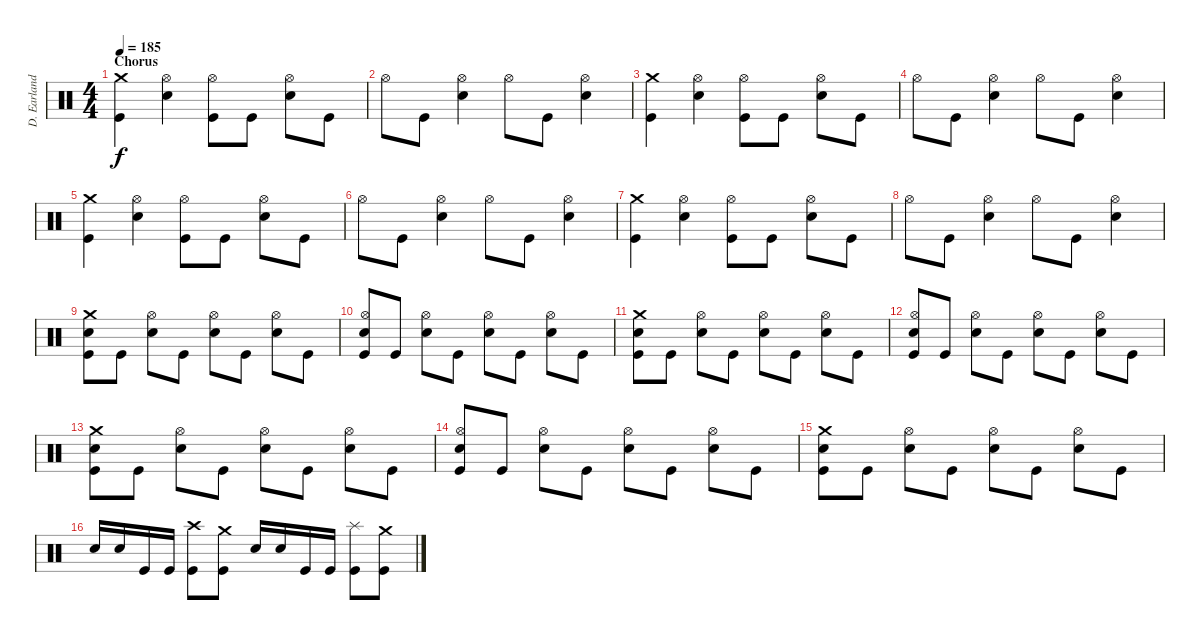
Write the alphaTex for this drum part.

\track ("D. Earlanddson" "D. Earland") {instrument percussion}
\staff {score}
\articulation defaults
\ts (4 4)
\section ("" "Chorus")
\tempo 185
\clef neutral
\ks c
("Crash medium (hit)" "Kick (hit)").4{dy f} ("Hi-Hat (open)" "Electric Snare (hit)").4 ("Hi-Hat (open)" "Kick (hit)").8 "Kick (hit)".8 ("Hi-Hat (open)" "Electric Snare (hit)").8 "Kick (hit)".8 |
"Hi-Hat (open)".8 "Kick (hit)".8 ("Hi-Hat (open)" "Electric Snare (hit)").4 "Hi-Hat (open)".8 "Kick (hit)".8 ("Hi-Hat (open)" "Electric Snare (hit)").4 |
("Crash medium (hit)" "Kick (hit)").4 ("Hi-Hat (open)" "Electric Snare (hit)").4 ("Hi-Hat (open)" "Kick (hit)").8 "Kick (hit)".8 ("Hi-Hat (open)" "Electric Snare (hit)").8 "Kick (hit)".8 |
"Hi-Hat (open)".8 "Kick (hit)".8 ("Hi-Hat (open)" "Electric Snare (hit)").4 "Hi-Hat (open)".8 "Kick (hit)".8 ("Hi-Hat (open)" "Electric Snare (hit)").4 |
("Crash medium (hit)" "Kick (hit)").4 ("Hi-Hat (open)" "Electric Snare (hit)").4 ("Hi-Hat (open)" "Kick (hit)").8 "Kick (hit)".8 ("Hi-Hat (open)" "Electric Snare (hit)").8 "Kick (hit)".8 |
"Hi-Hat (open)".8 "Kick (hit)".8 ("Hi-Hat (open)" "Electric Snare (hit)").4 "Hi-Hat (open)".8 "Kick (hit)".8 ("Hi-Hat (open)" "Electric Snare (hit)").4 |
("Crash medium (hit)" "Kick (hit)").4 ("Hi-Hat (open)" "Electric Snare (hit)").4 ("Hi-Hat (open)" "Kick (hit)").8 "Kick (hit)".8 ("Hi-Hat (open)" "Electric Snare (hit)").8 "Kick (hit)".8 |
"Hi-Hat (open)".8 "Kick (hit)".8 ("Hi-Hat (open)" "Electric Snare (hit)").4 "Hi-Hat (open)".8 "Kick (hit)".8 ("Hi-Hat (open)" "Electric Snare (hit)").4 |
("Crash medium (hit)" "Electric Snare (hit)" "Kick (hit)").8 "Kick (hit)".8 ("Hi-Hat (open)" "Electric Snare (hit)").8 "Kick (hit)".8 ("Hi-Hat (open)" "Electric Snare (hit)").8 "Kick (hit)".8 ("Hi-Hat (open)" "Electric Snare (hit)").8 "Kick (hit)".8 |
("Hi-Hat (open)" "Electric Snare (hit)" "Kick (hit)").8 "Kick (hit)".8 ("Hi-Hat (open)" "Electric Snare (hit)").8 "Kick (hit)".8 ("Hi-Hat (open)" "Electric Snare (hit)").8 "Kick (hit)".8 ("Hi-Hat (open)" "Electric Snare (hit)").8 "Kick (hit)".8 |
("Crash medium (hit)" "Electric Snare (hit)" "Kick (hit)").8 "Kick (hit)".8 ("Hi-Hat (open)" "Electric Snare (hit)").8 "Kick (hit)".8 ("Hi-Hat (open)" "Electric Snare (hit)").8 "Kick (hit)".8 ("Hi-Hat (open)" "Electric Snare (hit)").8 "Kick (hit)".8 |
("Hi-Hat (open)" "Electric Snare (hit)" "Kick (hit)").8 "Kick (hit)".8 ("Hi-Hat (open)" "Electric Snare (hit)").8 "Kick (hit)".8 ("Hi-Hat (open)" "Electric Snare (hit)").8 "Kick (hit)".8 ("Hi-Hat (open)" "Electric Snare (hit)").8 "Kick (hit)".8 |
("Crash medium (hit)" "Electric Snare (hit)" "Kick (hit)").8 "Kick (hit)".8 ("Hi-Hat (open)" "Electric Snare (hit)").8 "Kick (hit)".8 ("Hi-Hat (open)" "Electric Snare (hit)").8 "Kick (hit)".8 ("Hi-Hat (open)" "Electric Snare (hit)").8 "Kick (hit)".8 |
("Hi-Hat (open)" "Electric Snare (hit)" "Kick (hit)").8 "Kick (hit)".8 ("Hi-Hat (open)" "Electric Snare (hit)").8 "Kick (hit)".8 ("Hi-Hat (open)" "Electric Snare (hit)").8 "Kick (hit)".8 ("Hi-Hat (open)" "Electric Snare (hit)").8 "Kick (hit)".8 |
("Crash medium (hit)" "Electric Snare (hit)" "Kick (hit)").8 "Kick (hit)".8 ("Hi-Hat (open)" "Electric Snare (hit)").8 "Kick (hit)".8 ("Hi-Hat (open)" "Electric Snare (hit)").8 "Kick (hit)".8 ("Hi-Hat (open)" "Electric Snare (hit)").8 "Kick (hit)".8 |
"Electric Snare (hit)".16 "Electric Snare (hit)".16 "Kick (hit)".16 "Kick (hit)".16 ("Crash high (hit)" "Kick (hit)").8 ("Crash medium (hit)" "Kick (hit)").8 "Electric Snare (hit)".16 "Electric Snare (hit)".16 "Kick (hit)".16 "Kick (hit)".16 ("Splash (hit)" "Kick (hit)").8 ("Crash medium (hit)" "Kick (hit)").8
